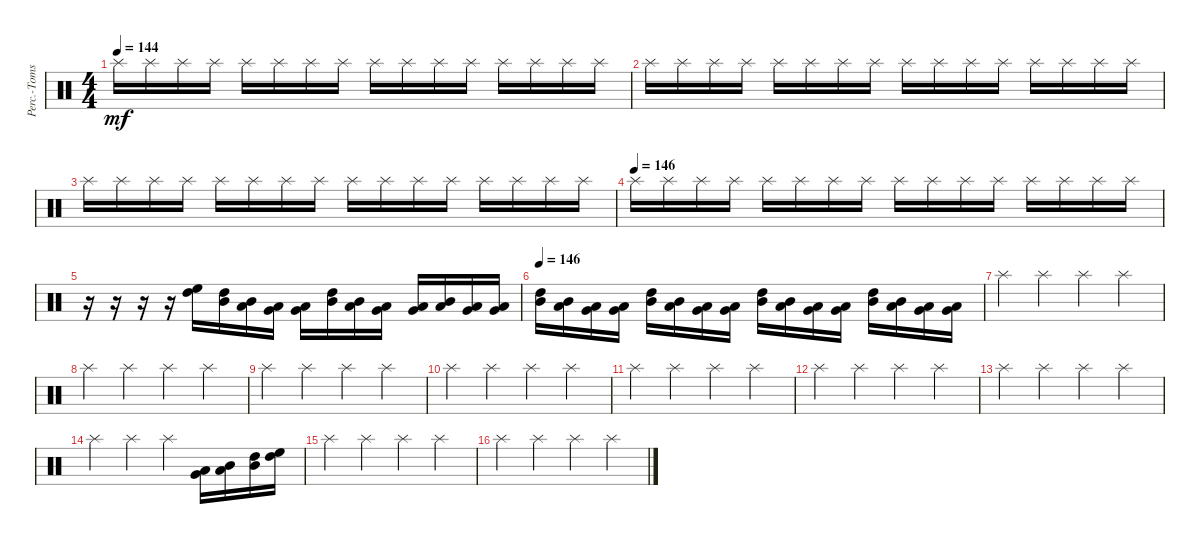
\track ("Perc.-Toms/Cym.2" "Perc.-Toms") {instrument percussion}
\staff {score}
\articulation defaults
\ts (4 4)
\tempo 144
\clef neutral
\ks c "Splash (hit)".16{dy mf} "Splash (hit)".16 "Splash (hit)".16 "Splash (hit)".16 "Splash (hit)".16 "Splash (hit)".16 "Splash (hit)".16 "Splash (hit)".16 "Splash (hit)".16 "Splash (hit)".16 "Splash (hit)".16 "Splash (hit)".16 "Splash (hit)".16 "Splash (hit)".16 "Splash (hit)".16 "Splash (hit)".16
|
"Splash (hit)".16 "Splash (hit)".16 "Splash (hit)".16 "Splash (hit)".16 "Splash (hit)".16 "Splash (hit)".16 "Splash (hit)".16 "Splash (hit)".16 "Splash (hit)".16 "Splash (hit)".16 "Splash (hit)".16 "Splash (hit)".16 "Splash (hit)".16 "Splash (hit)".16 "Splash (hit)".16 "Splash (hit)".16 |
"Splash (hit)".16 "Splash (hit)".16 "Splash (hit)".16 "Splash (hit)".16 "Splash (hit)".16 "Splash (hit)".16 "Splash (hit)".16 "Splash (hit)".16 "Splash (hit)".16 "Splash (hit)".16 "Splash (hit)".16 "Splash (hit)".16 "Splash (hit)".16 "Splash (hit)".16 "Splash (hit)".16 "Splash (hit)".16 |
\tempo (146)
"Splash (hit)".16 "Splash (hit)".16 "Splash (hit)".16 "Splash (hit)".16 "Splash (hit)".16 "Splash (hit)".16 "Splash (hit)".16 "Splash (hit)".16 "Splash (hit)".16 "Splash (hit)".16 "Splash (hit)".16 "Splash (hit)".16 "Splash (hit)".16 "Splash (hit)".16 "Splash (hit)".16 "Splash (hit)".16 |
r.16 r.16 r.16 r.16 ("High Floor Tom (hit)" "High Tom (hit)").16 ("High Tom (hit)" "Mid Tom (hit)").16 ("Mid Tom (hit)" "Low Tom (hit)").16 ("Low Tom (hit)" "Very Low Tom (hit)").16 ("Very Low Tom (hit)" "Low Floor Tom (hit)").16 ("High Tom (hit)" "Mid Tom (hit)").16 ("Mid Tom (hit)" "Low Tom (hit)").16 ("Low Tom (hit)" "Very Low Tom (hit)").16 ("Very Low Tom (hit)" "Low Floor Tom (hit)").16 ("Mid Tom (hit)" "Low Tom (hit)").16 ("Low Tom (hit)" "Very Low Tom (hit)").16 ("Very Low Tom (hit)" "Low Floor Tom (hit)").16 |
\tempo 146
("High Tom (hit)" "Mid Tom (hit)").16 ("Mid Tom (hit)" "Low Tom (hit)").16 ("Low Tom (hit)" "Very Low Tom (hit)").16 ("Very Low Tom (hit)" "Low Floor Tom (hit)").16 ("High Tom (hit)" "Mid Tom (hit)").16 ("Mid Tom (hit)" "Low Tom (hit)").16 ("Low Tom (hit)" "Very Low Tom (hit)").16 ("Very Low Tom (hit)" "Low Floor Tom (hit)").16 ("High Tom (hit)" "Mid Tom (hit)").16 ("Mid Tom (hit)" "Low Tom (hit)").16 ("Low Tom (hit)" "Very Low Tom (hit)").16 ("Very Low Tom (hit)" "Low Floor Tom (hit)").16 ("High Tom (hit)" "Mid Tom (hit)").16 ("Mid Tom (hit)" "Low Tom (hit)").16 ("Low Tom (hit)" "Very Low Tom (hit)").16 ("Very Low Tom (hit)" "Low Floor Tom (hit)").16 |
"Splash (hit)".4 "Splash (hit)".4 "Splash (hit)".4 "Splash (hit)".4 |
"Splash (hit)".4 "Splash (hit)".4 "Splash (hit)".4 "Splash (hit)".4 |
"Splash (hit)".4 "Splash (hit)".4 "Splash (hit)".4 "Splash (hit)".4 |
"Splash (hit)".4 "Splash (hit)".4 "Splash (hit)".4 "Splash (hit)".4 |
"Splash (hit)".4 "Splash (hit)".4 "Splash (hit)".4 "Splash (hit)".4 |
"Splash (hit)".4 "Splash (hit)".4 "Splash (hit)".4 "Splash (hit)".4 |
"Splash (hit)".4 "Splash (hit)".4 "Splash (hit)".4 "Splash (hit)".4 |
"Splash (hit)".4 "Splash (hit)".4 "Splash (hit)".4 ("Low Tom (hit)" "Very Low Tom (hit)").16 ("Mid Tom (hit)" "Low Tom (hit)").16 ("High Tom (hit)" "Mid Tom (hit)").16 ("High Floor Tom (hit)" "High Tom (hit)").16 |
"Splash (hit)".4 "Splash (hit)".4 "Splash (hit)".4 "Splash (hit)".4 |
"Splash (hit)".4 "Splash (hit)".4 "Splash (hit)".4 "Splash (hit)".4
